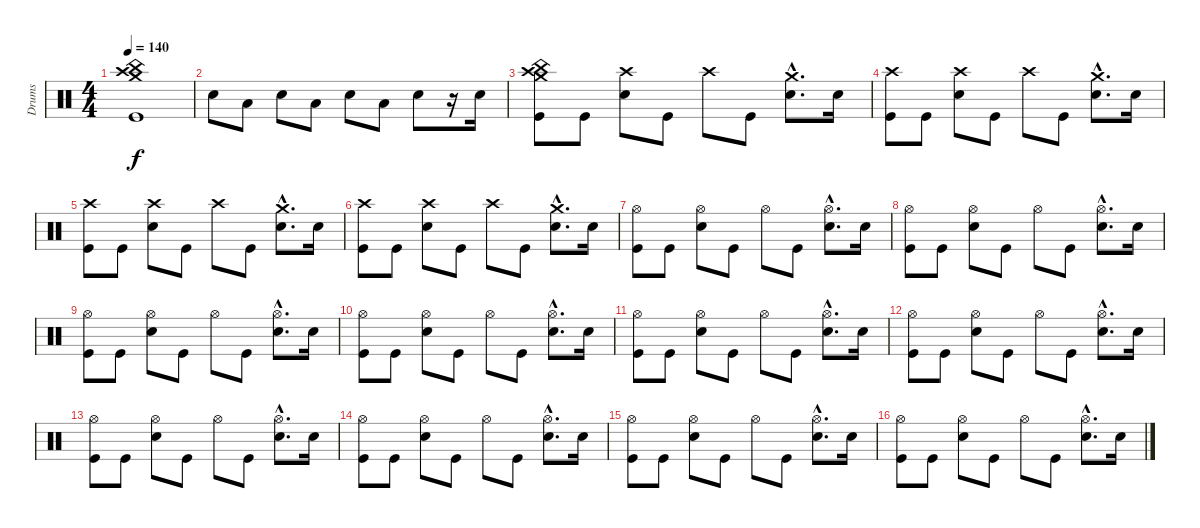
\track ("Drums" "Drums") {instrument percussion}
\staff {score}
\articulation defaults
\ts (4 4)
\tempo 140
\clef neutral
\ks c
("China (hit)" "Crash medium (hit)" "Crash high (hit)" "Kick (hit)").1{dy f} |
"Electric Snare (hit)".8 "Low Tom (hit)".8 "Electric Snare (hit)".8 "Low Tom (hit)".8 "Electric Snare (hit)".8 "Low Tom (hit)".8 "Electric Snare (hit)".8 r.16 "Electric Snare (hit)".16 |
("China (hit)" "Crash high (hit)" "Crash medium (hit)" "Kick (hit)").8 "Kick (hit)".8 ("Crash high (hit)" "Electric Snare (hit)").8 "Kick (hit)".8 "Crash high (hit)".8 "Kick (hit)".8 ("Crash medium (hit)"{hac} "Electric Snare (hit)"{hac}).8{d} "Electric Snare (hit)".16 |
("Crash high (hit)" "Kick (hit)").8 "Kick (hit)".8 ("Crash high (hit)" "Electric Snare (hit)").8 "Kick (hit)".8 "Crash high (hit)".8 "Kick (hit)".8 ("Crash medium (hit)"{hac} "Electric Snare (hit)"{hac}).8{d} "Electric Snare (hit)".16 |
("Crash high (hit)" "Kick (hit)").8 "Kick (hit)".8 ("Crash high (hit)" "Electric Snare (hit)").8 "Kick (hit)".8 "Crash high (hit)".8 "Kick (hit)".8 ("Crash medium (hit)"{hac} "Electric Snare (hit)"{hac}).8{d} "Electric Snare (hit)".16 |
("Crash high (hit)" "Kick (hit)").8 "Kick (hit)".8 ("Crash high (hit)" "Electric Snare (hit)").8 "Kick (hit)".8 "Crash high (hit)".8 "Kick (hit)".8 ("Crash medium (hit)"{hac} "Electric Snare (hit)"{hac}).8{d} "Electric Snare (hit)".16 |
("Hi-Hat (open)" "Kick (hit)").8 "Kick (hit)".8 ("Hi-Hat (open)" "Electric Snare (hit)").8 "Kick (hit)".8 "Hi-Hat (open)".8 "Kick (hit)".8 ("Hi-Hat (open)"{hac} "Electric Snare (hit)"{hac}).8{d} "Electric Snare (hit)".16 |
("Hi-Hat (open)" "Kick (hit)").8 "Kick (hit)".8 ("Hi-Hat (open)" "Electric Snare (hit)").8 "Kick (hit)".8 "Hi-Hat (open)".8 "Kick (hit)".8 ("Hi-Hat (open)"{hac} "Electric Snare (hit)"{hac}).8{d} "Electric Snare (hit)".16 |
("Hi-Hat (open)" "Kick (hit)").8 "Kick (hit)".8 ("Hi-Hat (open)" "Electric Snare (hit)").8 "Kick (hit)".8 "Hi-Hat (open)".8 "Kick (hit)".8 ("Hi-Hat (open)"{hac} "Electric Snare (hit)"{hac}).8{d} "Electric Snare (hit)".16 |
("Hi-Hat (open)" "Kick (hit)").8 "Kick (hit)".8 ("Hi-Hat (open)" "Electric Snare (hit)").8 "Kick (hit)".8 "Hi-Hat (open)".8 "Kick (hit)".8 ("Hi-Hat (open)"{hac} "Electric Snare (hit)"{hac}).8{d} "Electric Snare (hit)".16 |
("Hi-Hat (open)" "Kick (hit)").8 "Kick (hit)".8 ("Hi-Hat (open)" "Electric Snare (hit)").8 "Kick (hit)".8 "Hi-Hat (open)".8 "Kick (hit)".8 ("Hi-Hat (open)"{hac} "Electric Snare (hit)"{hac}).8{d} "Electric Snare (hit)".16 |
("Hi-Hat (open)" "Kick (hit)").8 "Kick (hit)".8 ("Hi-Hat (open)" "Electric Snare (hit)").8 "Kick (hit)".8 "Hi-Hat (open)".8 "Kick (hit)".8 ("Hi-Hat (open)"{hac} "Electric Snare (hit)"{hac}).8{d} "Electric Snare (hit)".16 |
("Hi-Hat (open)" "Kick (hit)").8 "Kick (hit)".8 ("Hi-Hat (open)" "Electric Snare (hit)").8 "Kick (hit)".8 "Hi-Hat (open)".8 "Kick (hit)".8 ("Hi-Hat (open)"{hac} "Electric Snare (hit)"{hac}).8{d} "Electric Snare (hit)".16 |
("Hi-Hat (open)" "Kick (hit)").8 "Kick (hit)".8 ("Hi-Hat (open)" "Electric Snare (hit)").8 "Kick (hit)".8 "Hi-Hat (open)".8 "Kick (hit)".8 ("Hi-Hat (open)"{hac} "Electric Snare (hit)"{hac}).8{d} "Electric Snare (hit)".16 |
("Hi-Hat (open)" "Kick (hit)").8 "Kick (hit)".8 ("Hi-Hat (open)" "Electric Snare (hit)").8 "Kick (hit)".8 "Hi-Hat (open)".8 "Kick (hit)".8 ("Hi-Hat (open)"{hac} "Electric Snare (hit)"{hac}).8{d} "Electric Snare (hit)".16 |
("Hi-Hat (open)" "Kick (hit)").8 "Kick (hit)".8 ("Hi-Hat (open)" "Electric Snare (hit)").8 "Kick (hit)".8 "Hi-Hat (open)".8 "Kick (hit)".8 ("Hi-Hat (open)"{hac} "Electric Snare (hit)"{hac}).8{d} "Electric Snare (hit)".16
